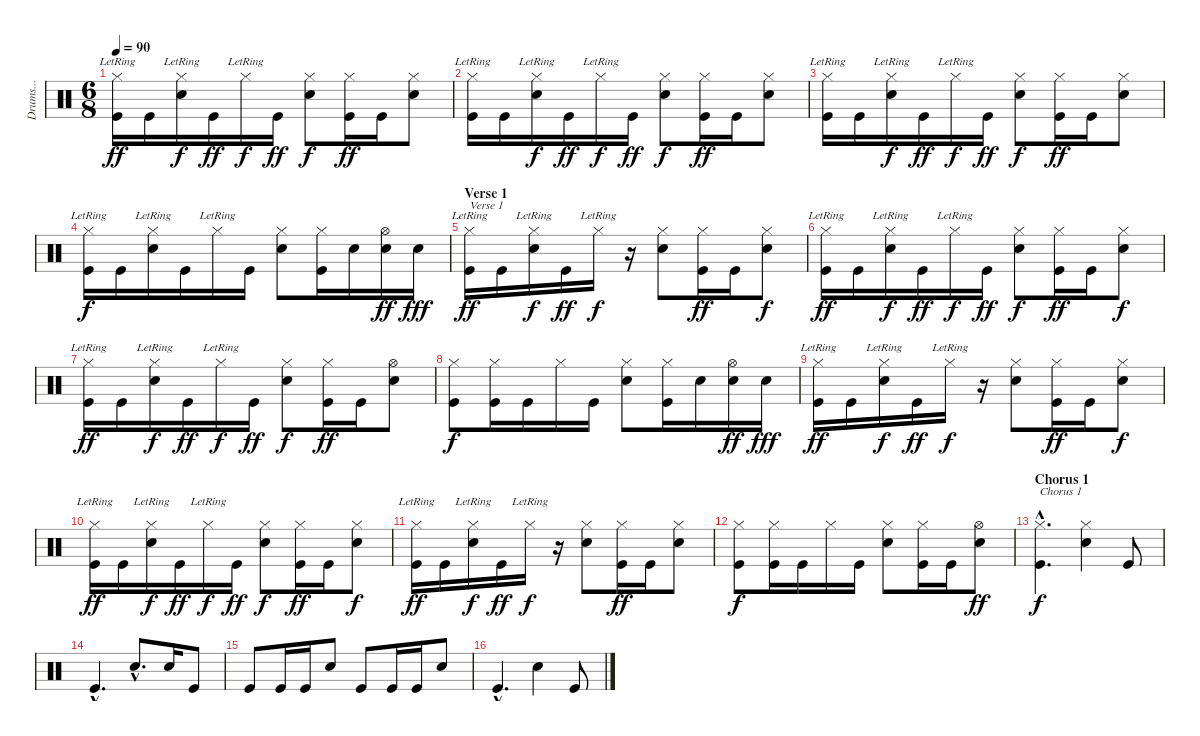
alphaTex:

\track ("Drums..." "Drums...") {instrument percussion}
\staff {score}
\articulation defaults
\ts (6 8)
\tempo 90
\clef neutral
\ks c
("Hi-Hat (closed)"{lr} "Kick (hit)").16{dy ff} "Kick (hit)".16 ("Hi-Hat (closed)"{lr} "Electric Snare (hit)").16{dy f} "Kick (hit)".16{dy ff} "Hi-Hat (closed)"{lr}.16{dy f} "Kick (hit)".16{dy ff} ("Hi-Hat (closed)" "Electric Snare (hit)").8{dy f} ("Hi-Hat (closed)" "Kick (hit)").16{dy ff} "Kick (hit)".16 ("Hi-Hat (closed)" "Electric Snare (hit)").8 |
("Hi-Hat (closed)"{lr} "Kick (hit)").16 "Kick (hit)".16 ("Hi-Hat (closed)"{lr} "Electric Snare (hit)").16{dy f} "Kick (hit)".16{dy ff} "Hi-Hat (closed)"{lr}.16{dy f} "Kick (hit)".16{dy ff} ("Hi-Hat (closed)" "Electric Snare (hit)").8{dy f} ("Hi-Hat (closed)" "Kick (hit)").16{dy ff} "Kick (hit)".16 ("Hi-Hat (closed)" "Electric Snare (hit)").8 |
("Hi-Hat (closed)"{lr} "Kick (hit)").16 "Kick (hit)".16 ("Hi-Hat (closed)"{lr} "Electric Snare (hit)").16{dy f} "Kick (hit)".16{dy ff} "Hi-Hat (closed)"{lr}.16{dy f} "Kick (hit)".16{dy ff} ("Hi-Hat (closed)" "Electric Snare (hit)").8{dy f} ("Hi-Hat (closed)" "Kick (hit)").16{dy ff} "Kick (hit)".16 ("Hi-Hat (closed)" "Electric Snare (hit)").8 |
("Hi-Hat (closed)"{lr} "Kick (hit)").16{dy f} "Kick (hit)".16 ("Hi-Hat (closed)"{lr} "Electric Snare (hit)").16 "Kick (hit)".16 "Hi-Hat (closed)"{lr}.16 "Kick (hit)".16 ("Hi-Hat (closed)" "Electric Snare (hit)").8 ("Hi-Hat (closed)" "Kick (hit)").16 "Electric Snare (hit)".16 ("Hi-Hat (open)" "Electric Snare (hit)").16{dy ff} "Electric Snare (hit)".16{dy fff} |
\section ("" "Verse 1")
("Hi-Hat (closed)"{lr} "Kick (hit)").16{txt "Verse 1" dy ff} "Kick (hit)".16 ("Hi-Hat (closed)"{lr} "Electric Snare (hit)").16{dy f} "Kick (hit)".16{dy ff} "Hi-Hat (closed)"{lr}.16{dy f} r.16 ("Hi-Hat (closed)" "Electric Snare (hit)").8 ("Hi-Hat (closed)" "Kick (hit)").16{dy ff} "Kick (hit)".16 ("Hi-Hat (closed)" "Electric Snare (hit)").8{dy f} |
("Hi-Hat (closed)"{lr} "Kick (hit)").16{dy ff} "Kick (hit)".16 ("Hi-Hat (closed)"{lr} "Electric Snare (hit)").16{dy f} "Kick (hit)".16{dy ff} "Hi-Hat (closed)"{lr}.16{dy f} "Kick (hit)".16{dy ff} ("Hi-Hat (closed)" "Electric Snare (hit)").8{dy f} ("Hi-Hat (closed)" "Kick (hit)").16{dy ff} "Kick (hit)".16 ("Hi-Hat (closed)" "Electric Snare (hit)").8{dy f} |
("Hi-Hat (closed)"{lr} "Kick (hit)").16{dy ff} "Kick (hit)".16 ("Hi-Hat (closed)"{lr} "Electric Snare (hit)").16{dy f} "Kick (hit)".16{dy ff} "Hi-Hat (closed)"{lr}.16{dy f} "Kick (hit)".16{dy ff} ("Hi-Hat (closed)" "Electric Snare (hit)").8{dy f} ("Hi-Hat (closed)" "Kick (hit)").16{dy ff} "Kick (hit)".16 ("Hi-Hat (open)" "Electric Snare (hit)").8 |
("Hi-Hat (closed)" "Kick (hit)").8{dy f} ("Hi-Hat (closed)" "Kick (hit)").16 "Kick (hit)".16 "Hi-Hat (closed)".16 "Kick (hit)".16 ("Hi-Hat (closed)" "Electric Snare (hit)").8 ("Hi-Hat (closed)" "Kick (hit)").16 "Electric Snare (hit)".16 ("Hi-Hat (open)" "Electric Snare (hit)").16{dy ff} "Electric Snare (hit)".16{dy fff} |
("Hi-Hat (closed)"{lr} "Kick (hit)").16{dy ff} "Kick (hit)".16 ("Hi-Hat (closed)"{lr} "Electric Snare (hit)").16{dy f} "Kick (hit)".16{dy ff} "Hi-Hat (closed)"{lr}.16{dy f} r.16 ("Hi-Hat (closed)" "Electric Snare (hit)").8 ("Hi-Hat (closed)" "Kick (hit)").16{dy ff} "Kick (hit)".16 ("Hi-Hat (closed)" "Electric Snare (hit)").8{dy f} |
("Hi-Hat (closed)"{lr} "Kick (hit)").16{dy ff} "Kick (hit)".16 ("Hi-Hat (closed)"{lr} "Electric Snare (hit)").16{dy f} "Kick (hit)".16{dy ff} "Hi-Hat (closed)"{lr}.16{dy f} "Kick (hit)".16{dy ff} ("Hi-Hat (closed)" "Electric Snare (hit)").8{dy f} ("Hi-Hat (closed)" "Kick (hit)").16{dy ff} "Kick (hit)".16 ("Hi-Hat (closed)" "Electric Snare (hit)").8{dy f} |
("Hi-Hat (closed)"{lr} "Kick (hit)").16{dy ff} "Kick (hit)".16 ("Hi-Hat (closed)"{lr} "Electric Snare (hit)").16{dy f} "Kick (hit)".16{dy ff} "Hi-Hat (closed)"{lr}.16{dy f} r.16 ("Hi-Hat (closed)" "Electric Snare (hit)").8 ("Hi-Hat (closed)" "Kick (hit)").16{dy ff} "Kick (hit)".16 ("Hi-Hat (closed)" "Electric Snare (hit)").8 |
("Hi-Hat (closed)" "Kick (hit)").8{dy f} ("Hi-Hat (closed)" "Kick (hit)").16 "Kick (hit)".16 "Hi-Hat (closed)".16 "Kick (hit)".16 ("Hi-Hat (closed)" "Electric Snare (hit)").8 ("Hi-Hat (closed)" "Kick (hit)").16 "Kick (hit)".16 ("Hi-Hat (open)" "Electric Snare (hit)").8{dy ff} |
\section ("" "Chorus 1")
("Hi-Hat (closed)"{hac} "Kick (hit)"{hac}).4{d txt "Chorus 1" dy f} ("Hi-Hat (closed)" "Electric Snare (hit)").4 "Kick (hit)".8 |
"Kick (hit)"{hac}.4{d} "Electric Snare (hit)"{hac}.8{d} "Electric Snare (hit)".16 "Kick (hit)".8 |
"Kick (hit)".8 "Kick (hit)".16 "Kick (hit)".16 "Electric Snare (hit)".8 "Kick (hit)".8 "Kick (hit)".16 "Kick (hit)".16 "Electric Snare (hit)".8 |
"Kick (hit)"{hac}.4{d} "Electric Snare (hit)".4 "Kick (hit)".8
